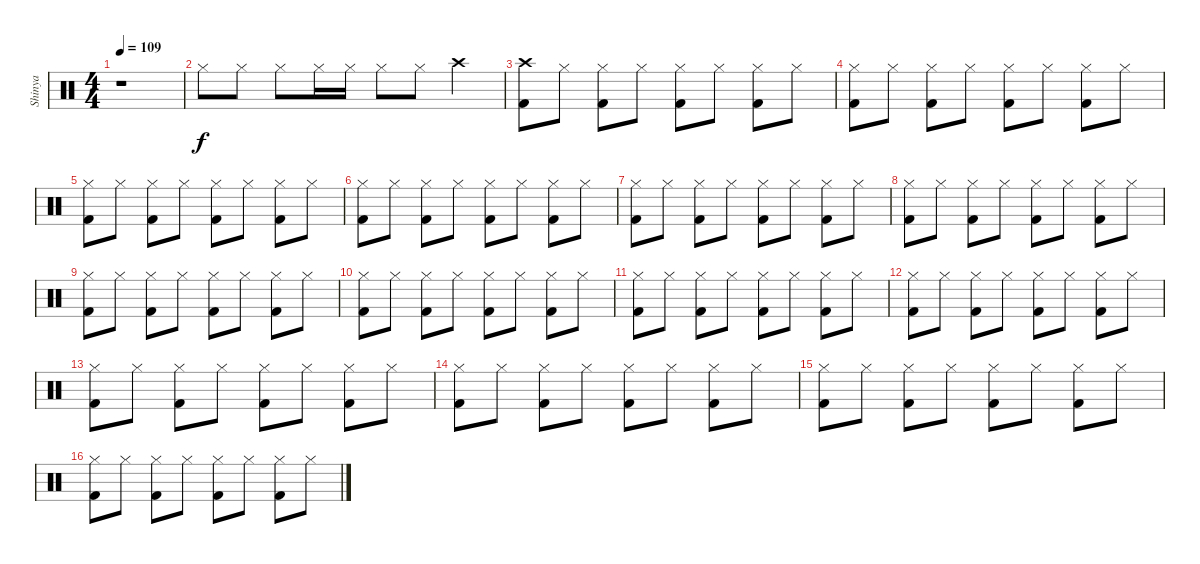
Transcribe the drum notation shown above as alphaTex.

\track ("Shinya" "Shinya") {instrument percussion}
\staff {score}
\articulation defaults
\ts (4 4)
\tempo 109
\clef neutral
\ks c
r.1{dy f} |
"Hi-Hat (closed)".8 "Hi-Hat (closed)".8 "Hi-Hat (closed)".8 "Hi-Hat (closed)".16 "Hi-Hat (closed)".16 "Hi-Hat (closed)".8 "Hi-Hat (closed)".8 "Crash high (hit)".4 |
("Crash high (hit)" "Kick (hit) 2").8 "Hi-Hat (closed)".8 ("Hi-Hat (closed)" "Kick (hit) 2").8 "Hi-Hat (closed)".8 ("Hi-Hat (closed)" "Kick (hit) 2").8 "Hi-Hat (closed)".8 ("Hi-Hat (closed)" "Kick (hit) 2").8 "Hi-Hat (closed)".8 |
("Hi-Hat (closed)" "Kick (hit) 2").8 "Hi-Hat (closed)".8 ("Hi-Hat (closed)" "Kick (hit) 2").8 "Hi-Hat (closed)".8 ("Hi-Hat (closed)" "Kick (hit) 2").8 "Hi-Hat (closed)".8 ("Hi-Hat (closed)" "Kick (hit) 2").8 "Hi-Hat (closed)".8 |
("Hi-Hat (closed)" "Kick (hit) 2").8 "Hi-Hat (closed)".8 ("Hi-Hat (closed)" "Kick (hit) 2").8 "Hi-Hat (closed)".8 ("Hi-Hat (closed)" "Kick (hit) 2").8 "Hi-Hat (closed)".8 ("Hi-Hat (closed)" "Kick (hit) 2").8 "Hi-Hat (closed)".8 |
("Hi-Hat (closed)" "Kick (hit) 2").8 "Hi-Hat (closed)".8 ("Hi-Hat (closed)" "Kick (hit) 2").8 "Hi-Hat (closed)".8 ("Hi-Hat (closed)" "Kick (hit) 2").8 "Hi-Hat (closed)".8 ("Hi-Hat (closed)" "Kick (hit) 2").8 "Hi-Hat (closed)".8 |
("Hi-Hat (closed)" "Kick (hit) 2").8 "Hi-Hat (closed)".8 ("Hi-Hat (closed)" "Kick (hit) 2").8 "Hi-Hat (closed)".8 ("Hi-Hat (closed)" "Kick (hit) 2").8 "Hi-Hat (closed)".8 ("Hi-Hat (closed)" "Kick (hit) 2").8 "Hi-Hat (closed)".8 |
("Hi-Hat (closed)" "Kick (hit) 2").8 "Hi-Hat (closed)".8 ("Hi-Hat (closed)" "Kick (hit) 2").8 "Hi-Hat (closed)".8 ("Hi-Hat (closed)" "Kick (hit) 2").8 "Hi-Hat (closed)".8 ("Hi-Hat (closed)" "Kick (hit) 2").8 "Hi-Hat (closed)".8 |
("Hi-Hat (closed)" "Kick (hit) 2").8 "Hi-Hat (closed)".8 ("Hi-Hat (closed)" "Kick (hit) 2").8 "Hi-Hat (closed)".8 ("Hi-Hat (closed)" "Kick (hit) 2").8 "Hi-Hat (closed)".8 ("Hi-Hat (closed)" "Kick (hit) 2").8 "Hi-Hat (closed)".8 |
("Hi-Hat (closed)" "Kick (hit) 2").8 "Hi-Hat (closed)".8 ("Hi-Hat (closed)" "Kick (hit) 2").8 "Hi-Hat (closed)".8 ("Hi-Hat (closed)" "Kick (hit) 2").8 "Hi-Hat (closed)".8 ("Hi-Hat (closed)" "Kick (hit) 2").8 "Hi-Hat (closed)".8 |
("Hi-Hat (closed)" "Kick (hit) 2").8 "Hi-Hat (closed)".8 ("Hi-Hat (closed)" "Kick (hit) 2").8 "Hi-Hat (closed)".8 ("Hi-Hat (closed)" "Kick (hit) 2").8 "Hi-Hat (closed)".8 ("Hi-Hat (closed)" "Kick (hit) 2").8 "Hi-Hat (closed)".8 |
("Hi-Hat (closed)" "Kick (hit) 2").8 "Hi-Hat (closed)".8 ("Hi-Hat (closed)" "Kick (hit) 2").8 "Hi-Hat (closed)".8 ("Hi-Hat (closed)" "Kick (hit) 2").8 "Hi-Hat (closed)".8 ("Hi-Hat (closed)" "Kick (hit) 2").8 "Hi-Hat (closed)".8 |
("Hi-Hat (closed)" "Kick (hit) 2").8 "Hi-Hat (closed)".8 ("Hi-Hat (closed)" "Kick (hit) 2").8 "Hi-Hat (closed)".8 ("Hi-Hat (closed)" "Kick (hit) 2").8 "Hi-Hat (closed)".8 ("Hi-Hat (closed)" "Kick (hit) 2").8 "Hi-Hat (closed)".8 |
("Hi-Hat (closed)" "Kick (hit) 2").8 "Hi-Hat (closed)".8 ("Hi-Hat (closed)" "Kick (hit) 2").8 "Hi-Hat (closed)".8 ("Hi-Hat (closed)" "Kick (hit) 2").8 "Hi-Hat (closed)".8 ("Hi-Hat (closed)" "Kick (hit) 2").8 "Hi-Hat (closed)".8 |
("Hi-Hat (closed)" "Kick (hit) 2").8 "Hi-Hat (closed)".8 ("Hi-Hat (closed)" "Kick (hit) 2").8 "Hi-Hat (closed)".8 ("Hi-Hat (closed)" "Kick (hit) 2").8 "Hi-Hat (closed)".8 ("Hi-Hat (closed)" "Kick (hit) 2").8 "Hi-Hat (closed)".8 |
("Hi-Hat (closed)" "Kick (hit) 2").8 "Hi-Hat (closed)".8 ("Hi-Hat (closed)" "Kick (hit) 2").8 "Hi-Hat (closed)".8 ("Hi-Hat (closed)" "Kick (hit) 2").8 "Hi-Hat (closed)".8 ("Hi-Hat (closed)" "Kick (hit) 2").8 "Hi-Hat (closed)".8
